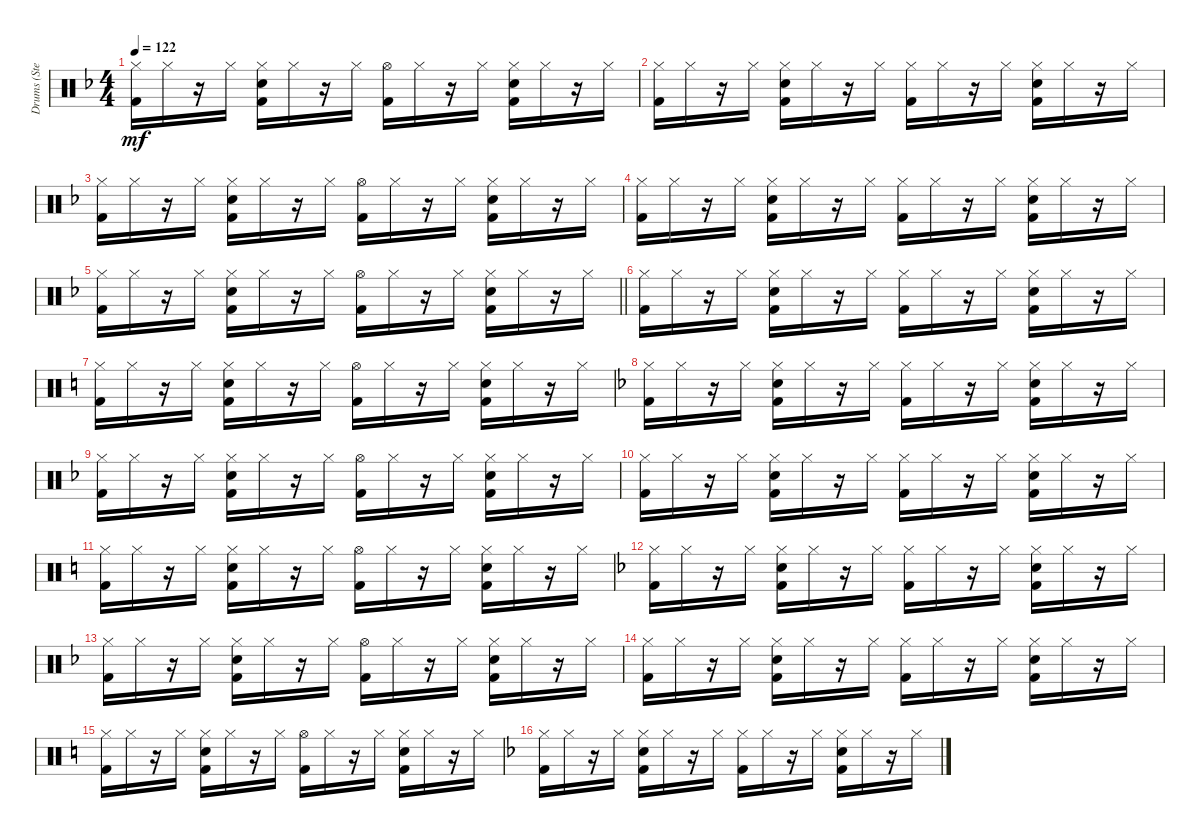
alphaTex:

\track ("Drums (Stephen Morris)" "Drums (Ste") {instrument percussion}
\staff {score}
\articulation defaults
\ts (4 4)
\tempo 122
\clef neutral
\ks f
("Kick (hit) 2" "Hi-Hat (closed)").16{dy mf} "Hi-Hat (closed)".16 r.16 "Hi-Hat (closed)".16 ("Hi-Hat (closed)" "Snare (hit) 2" "Kick (hit) 2").16 "Hi-Hat (closed)".16 r.16 "Hi-Hat (closed)".16 ("Kick (hit) 2" "Hi-Hat (open)").16 "Hi-Hat (closed)".16 r.16 "Hi-Hat (closed)".16 ("Kick (hit) 2" "Snare (hit) 2" "Hi-Hat (closed)").16 "Hi-Hat (closed)".16 r.16 "Hi-Hat (closed)".16 |
("Kick (hit) 2" "Hi-Hat (closed)").16 "Hi-Hat (closed)".16 r.16 "Hi-Hat (closed)".16 ("Hi-Hat (closed)" "Snare (hit) 2" "Kick (hit) 2").16 "Hi-Hat (closed)".16 r.16 "Hi-Hat (closed)".16 ("Kick (hit) 2" "Hi-Hat (closed)").16 "Hi-Hat (closed)".16 r.16 "Hi-Hat (closed)".16 ("Hi-Hat (closed)" "Snare (hit) 2" "Kick (hit) 2").16 "Hi-Hat (closed)".16 r.16 "Hi-Hat (closed)".16 |
("Kick (hit) 2" "Hi-Hat (closed)").16 "Hi-Hat (closed)".16 r.16 "Hi-Hat (closed)".16 ("Hi-Hat (closed)" "Snare (hit) 2" "Kick (hit) 2").16 "Hi-Hat (closed)".16 r.16 "Hi-Hat (closed)".16 ("Kick (hit) 2" "Hi-Hat (open)").16 "Hi-Hat (closed)".16 r.16 "Hi-Hat (closed)".16 ("Hi-Hat (closed)" "Snare (hit) 2" "Kick (hit) 2").16 "Hi-Hat (closed)".16 r.16 "Hi-Hat (closed)".16 |
("Hi-Hat (closed)" "Kick (hit) 2").16 "Hi-Hat (closed)".16 r.16 "Hi-Hat (closed)".16 ("Hi-Hat (closed)" "Snare (hit) 2" "Kick (hit) 2").16 "Hi-Hat (closed)".16 r.16 "Hi-Hat (closed)".16 ("Kick (hit) 2" "Hi-Hat (closed)").16 "Hi-Hat (closed)".16 r.16 "Hi-Hat (closed)".16 ("Hi-Hat (closed)" "Snare (hit) 2" "Kick (hit) 2").16 "Hi-Hat (closed)".16 r.16 "Hi-Hat (closed)".16 |
\barLineRight lightlight
("Kick (hit) 2" "Hi-Hat (closed)").16 "Hi-Hat (closed)".16 r.16 "Hi-Hat (closed)".16 ("Hi-Hat (closed)" "Snare (hit) 2" "Kick (hit) 2").16 "Hi-Hat (closed)".16 r.16 "Hi-Hat (closed)".16 ("Kick (hit) 2" "Hi-Hat (open)").16 "Hi-Hat (closed)".16 r.16 "Hi-Hat (closed)".16 ("Kick (hit) 2" "Snare (hit) 2" "Hi-Hat (closed)").16 "Hi-Hat (closed)".16 r.16 "Hi-Hat (closed)".16 |
("Kick (hit) 2" "Hi-Hat (closed)").16 "Hi-Hat (closed)".16 r.16 "Hi-Hat (closed)".16 ("Hi-Hat (closed)" "Snare (hit) 2" "Kick (hit) 2").16 "Hi-Hat (closed)".16 r.16 "Hi-Hat (closed)".16 ("Kick (hit) 2" "Hi-Hat (closed)").16 "Hi-Hat (closed)".16 r.16 "Hi-Hat (closed)".16 ("Kick (hit) 2" "Snare (hit) 2" "Hi-Hat (closed)").16 "Hi-Hat (closed)".16 r.16 "Hi-Hat (closed)".16 |
\ks c
("Kick (hit) 2" "Hi-Hat (closed)").16 "Hi-Hat (closed)".16 r.16 "Hi-Hat (closed)".16 ("Hi-Hat (closed)" "Snare (hit) 2" "Kick (hit) 2").16 "Hi-Hat (closed)".16 r.16 "Hi-Hat (closed)".16 ("Hi-Hat (open)" "Kick (hit) 2").16 "Hi-Hat (closed)".16 r.16 "Hi-Hat (closed)".16 ("Hi-Hat (closed)" "Snare (hit) 2" "Kick (hit) 2").16 "Hi-Hat (closed)".16 r.16 "Hi-Hat (closed)".16 |
\ks f
("Kick (hit) 2" "Hi-Hat (closed)").16 "Hi-Hat (closed)".16 r.16 "Hi-Hat (closed)".16 ("Kick (hit) 2" "Snare (hit) 2" "Hi-Hat (closed)").16 "Hi-Hat (closed)".16 r.16 "Hi-Hat (closed)".16 ("Hi-Hat (closed)" "Kick (hit) 2").16 "Hi-Hat (closed)".16 r.16 "Hi-Hat (closed)".16 ("Hi-Hat (closed)" "Snare (hit) 2" "Kick (hit) 2").16 "Hi-Hat (closed)".16 r.16 "Hi-Hat (closed)".16 |
("Kick (hit) 2" "Hi-Hat (closed)").16 "Hi-Hat (closed)".16 r.16 "Hi-Hat (closed)".16 ("Hi-Hat (closed)" "Kick (hit) 2" "Snare (hit) 2").16 "Hi-Hat (closed)".16 r.16 "Hi-Hat (closed)".16 ("Hi-Hat (open)" "Kick (hit) 2").16 "Hi-Hat (closed)".16 r.16 "Hi-Hat (closed)".16 ("Hi-Hat (closed)" "Snare (hit) 2" "Kick (hit) 2").16 "Hi-Hat (closed)".16 r.16 "Hi-Hat (closed)".16 |
("Kick (hit) 2" "Hi-Hat (closed)").16 "Hi-Hat (closed)".16 r.16 "Hi-Hat (closed)".16 ("Kick (hit) 2" "Snare (hit) 2" "Hi-Hat (closed)").16 "Hi-Hat (closed)".16 r.16 "Hi-Hat (closed)".16 ("Kick (hit) 2" "Hi-Hat (closed)").16 "Hi-Hat (closed)".16 r.16 "Hi-Hat (closed)".16 ("Hi-Hat (closed)" "Kick (hit) 2" "Snare (hit) 2").16 "Hi-Hat (closed)".16 r.16 "Hi-Hat (closed)".16 |
\ks c
("Hi-Hat (closed)" "Kick (hit) 2").16 "Hi-Hat (closed)".16 r.16 "Hi-Hat (closed)".16 ("Hi-Hat (closed)" "Snare (hit) 2" "Kick (hit) 2").16 "Hi-Hat (closed)".16 r.16 "Hi-Hat (closed)".16 ("Kick (hit) 2" "Hi-Hat (open)").16 "Hi-Hat (closed)".16 r.16 "Hi-Hat (closed)".16 ("Hi-Hat (closed)" "Snare (hit) 2" "Kick (hit) 2").16 "Hi-Hat (closed)".16 r.16 "Hi-Hat (closed)".16 |
\ks f
("Kick (hit) 2" "Hi-Hat (closed)").16 "Hi-Hat (closed)".16 r.16 "Hi-Hat (closed)".16 ("Hi-Hat (closed)" "Kick (hit) 2" "Snare (hit) 2").16 "Hi-Hat (closed)".16 r.16 "Hi-Hat (closed)".16 ("Kick (hit) 2" "Hi-Hat (closed)").16 "Hi-Hat (closed)".16 r.16 "Hi-Hat (closed)".16 ("Kick (hit) 2" "Snare (hit) 2" "Hi-Hat (closed)").16 "Hi-Hat (closed)".16 r.16 "Hi-Hat (closed)".16 |
("Kick (hit) 2" "Hi-Hat (closed)").16 "Hi-Hat (closed)".16 r.16 "Hi-Hat (closed)".16 ("Hi-Hat (closed)" "Kick (hit) 2" "Snare (hit) 2").16 "Hi-Hat (closed)".16 r.16 "Hi-Hat (closed)".16 ("Kick (hit) 2" "Hi-Hat (open)").16 "Hi-Hat (closed)".16 r.16 "Hi-Hat (closed)".16 ("Kick (hit) 2" "Snare (hit) 2" "Hi-Hat (closed)").16 "Hi-Hat (closed)".16 r.16 "Hi-Hat (closed)".16 |
("Kick (hit) 2" "Hi-Hat (closed)").16 "Hi-Hat (closed)".16 r.16 "Hi-Hat (closed)".16 ("Hi-Hat (closed)" "Snare (hit) 2" "Kick (hit) 2").16 "Hi-Hat (closed)".16 r.16 "Hi-Hat (closed)".16 ("Hi-Hat (closed)" "Kick (hit) 2").16 "Hi-Hat (closed)".16 r.16 "Hi-Hat (closed)".16 ("Hi-Hat (closed)" "Kick (hit) 2" "Snare (hit) 2").16 "Hi-Hat (closed)".16 r.16 "Hi-Hat (closed)".16 |
\ks c
("Kick (hit) 2" "Hi-Hat (closed)").16 "Hi-Hat (closed)".16 r.16 "Hi-Hat (closed)".16 ("Kick (hit) 2" "Snare (hit) 2" "Hi-Hat (closed)").16 "Hi-Hat (closed)".16 r.16 "Hi-Hat (closed)".16 ("Hi-Hat (open)" "Kick (hit) 2").16 "Hi-Hat (closed)".16 r.16 "Hi-Hat (closed)".16 ("Hi-Hat (closed)" "Kick (hit) 2" "Snare (hit) 2").16 "Hi-Hat (closed)".16 r.16 "Hi-Hat (closed)".16 |
\ks f
("Kick (hit) 2" "Hi-Hat (closed)").16 "Hi-Hat (closed)".16 r.16 "Hi-Hat (closed)".16 ("Hi-Hat (closed)" "Snare (hit) 2" "Kick (hit) 2").16 "Hi-Hat (closed)".16 r.16 "Hi-Hat (closed)".16 ("Hi-Hat (closed)" "Kick (hit) 2").16 "Hi-Hat (closed)".16 r.16 "Hi-Hat (closed)".16 ("Hi-Hat (closed)" "Snare (hit) 2" "Kick (hit) 2").16 "Hi-Hat (closed)".16 r.16 "Hi-Hat (closed)".16
